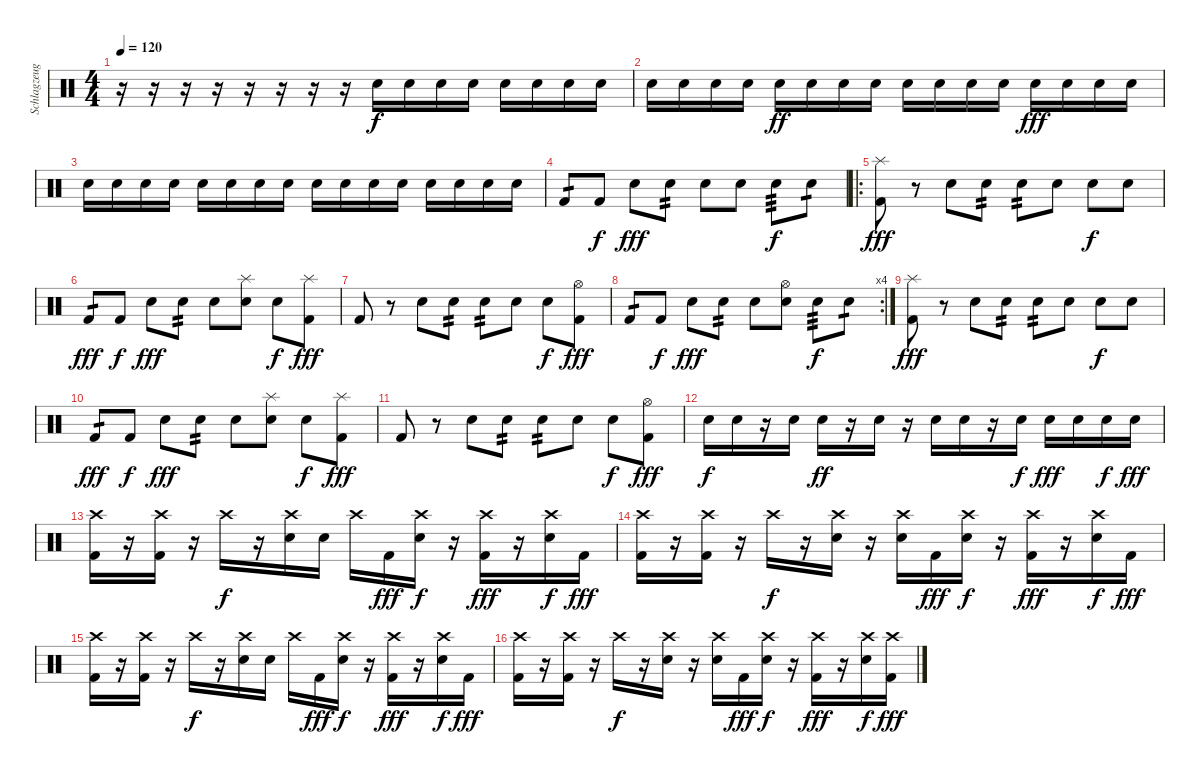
\track ("Schlagzeug" "Schlagzeug") {instrument percussion}
\staff {score}
\articulation defaults
\ts (4 4)
\tempo 120
\clef neutral
\ks c
r.16{dy f} r.16 r.16 r.16 r.16 r.16 r.16 r.16 "Snare (hit) 2".16 "Snare (hit) 2".16 "Snare (hit) 2".16 "Snare (hit) 2".16 "Snare (hit) 2".16 "Snare (hit) 2".16 "Snare (hit) 2".16 "Snare (hit) 2".16 |
"Snare (hit) 2".16 "Snare (hit) 2".16 "Snare (hit) 2".16 "Snare (hit) 2".16 "Snare (hit) 2".16{dy ff} "Snare (hit) 2".16 "Snare (hit) 2".16 "Snare (hit) 2".16 "Snare (hit) 2".16 "Snare (hit) 2".16 "Snare (hit) 2".16 "Snare (hit) 2".16 "Snare (hit) 2".16{dy fff} "Snare (hit) 2".16 "Snare (hit) 2".16 "Snare (hit) 2".16 |
"Snare (hit) 2".16 "Snare (hit) 2".16 "Snare (hit) 2".16 "Snare (hit) 2".16 "Snare (hit) 2".16 "Snare (hit) 2".16 "Snare (hit) 2".16 "Snare (hit) 2".16 "Snare (hit) 2".16 "Snare (hit) 2".16 "Snare (hit) 2".16 "Snare (hit) 2".16 "Snare (hit) 2".16 "Snare (hit) 2".16 "Snare (hit) 2".16 "Snare (hit) 2".16 |
"Kick (hit) 2".8{tp 1} "Kick (hit) 2".8{dy f} "Snare (hit) 2".8{dy fff} "Snare (hit) 2".8{tp 2} "Snare (hit) 2".8 "Snare (hit) 2".8 "Snare (hit) 2".8{tp 3 dy f} "Snare (hit) 2".8{tp 1} |
\ro
("Kick (hit) 2" "Splash (hit)").8{dy fff} r.8 "Snare (hit) 2".8 "Snare (hit) 2".8{tp 2} "Snare (hit) 2".8{tp 2} "Snare (hit) 2".8 "Snare (hit) 2".8{dy f} "Snare (hit) 2".8 |
"Kick (hit) 2".8{tp 1 dy fff} "Kick (hit) 2".8{dy f} "Snare (hit) 2".8{dy fff} "Snare (hit) 2".8{tp 2} "Snare (hit) 2".8 ("Snare (hit) 2" "Splash (hit)").8 "Snare (hit) 2".8{dy f} ("Kick (hit) 2" "Splash (hit)").8{dy fff} |
"Kick (hit) 2".8 r.8 "Snare (hit) 2".8 "Snare (hit) 2".8{tp 2} "Snare (hit) 2".8{tp 2} "Snare (hit) 2".8 "Snare (hit) 2".8{dy f} ("Kick (hit) 2" "Hi-Hat (open)").8{dy fff} |
\rc 4 "Kick (hit) 2".8{tp 1} "Kick (hit) 2".8{dy f} "Snare (hit) 2".8{dy fff} "Snare (hit) 2".8{tp 2} "Snare (hit) 2".8
("Snare (hit) 2" "Hi-Hat (open)").8 "Snare (hit) 2".8{tp 3 dy f} "Snare (hit) 2".8{tp 1} |
("Kick (hit) 2" "Splash (hit)").8{dy fff} r.8 "Snare (hit) 2".8 "Snare (hit) 2".8{tp 2} "Snare (hit) 2".8{tp 2} "Snare (hit) 2".8 "Snare (hit) 2".8{dy f} "Snare (hit) 2".8 |
"Kick (hit) 2".8{tp 1 dy fff} "Kick (hit) 2".8{dy f} "Snare (hit) 2".8{dy fff} "Snare (hit) 2".8{tp 2} "Snare (hit) 2".8 ("Snare (hit) 2" "Splash (hit)").8 "Snare (hit) 2".8{dy f} ("Kick (hit) 2" "Splash (hit)").8{dy fff} |
"Kick (hit) 2".8 r.8 "Snare (hit) 2".8 "Snare (hit) 2".8{tp 2} "Snare (hit) 2".8{tp 2} "Snare (hit) 2".8 "Snare (hit) 2".8{dy f} ("Kick (hit) 2" "Hi-Hat (open)").8{dy fff} |
"Snare (hit) 2".16{dy f} "Snare (hit) 2".16 r.16 "Snare (hit) 2".16 "Snare (hit) 2".16{dy ff} r.16 "Snare (hit) 2".16 r.16 "Snare (hit) 2".16 "Snare (hit) 2".16 r.16 "Snare (hit) 2".16{dy f} "Snare (hit) 2".16{dy fff} "Snare (hit) 2".16 "Snare (hit) 2".16{dy f} "Snare (hit) 2".16{dy fff} |
("Crash high (hit)" "Kick (hit) 2").16 r.16 ("Crash high (hit)" "Kick (hit) 2").16 r.16 "Crash high (hit)".16{dy f} r.16 ("Crash high (hit)" "Snare (hit) 2").16 "Snare (hit) 2".16 "Crash high (hit)".16 "Kick (hit) 2".16{dy fff} ("Crash high (hit)" "Snare (hit) 2").16{dy f} r.16 ("Crash high (hit)" "Kick (hit) 2").16{dy fff} r.16 ("Crash high (hit)" "Snare (hit) 2").16{dy f} "Kick (hit) 2".16{dy fff} |
("Crash high (hit)" "Kick (hit) 2").16 r.16 ("Crash high (hit)" "Kick (hit) 2").16 r.16 "Crash high (hit)".16{dy f} r.16 ("Crash high (hit)" "Snare (hit) 2").16 r.16 ("Crash high (hit)" "Snare (hit) 2").16 "Kick (hit) 2".16{dy fff} ("Crash high (hit)" "Snare (hit) 2").16{dy f} r.16 ("Crash high (hit)" "Kick (hit) 2").16{dy fff} r.16 ("Crash high (hit)" "Snare (hit) 2").16{dy f} "Kick (hit) 2".16{dy fff} |
("Crash high (hit)" "Kick (hit) 2").16 r.16 ("Crash high (hit)" "Kick (hit) 2").16 r.16 "Crash high (hit)".16{dy f} r.16 ("Crash high (hit)" "Snare (hit) 2").16 "Snare (hit) 2".16 "Crash high (hit)".16 "Kick (hit) 2".16{dy fff} ("Crash high (hit)" "Snare (hit) 2").16{dy f} r.16 ("Crash high (hit)" "Kick (hit) 2").16{dy fff} r.16 ("Crash high (hit)" "Snare (hit) 2").16{dy f} "Kick (hit) 2".16{dy fff} |
("Crash high (hit)" "Kick (hit) 2").16 r.16 ("Crash high (hit)" "Kick (hit) 2").16 r.16 "Crash high (hit)".16{dy f} r.16 ("Crash high (hit)" "Snare (hit) 2").16 r.16 ("Crash high (hit)" "Snare (hit) 2").16 "Kick (hit) 2".16{dy fff} ("Crash high (hit)" "Snare (hit) 2").16{dy f} r.16 ("Crash high (hit)" "Kick (hit) 2").16{dy fff} r.16 ("Crash high (hit)" "Snare (hit) 2").16{dy f} ("Crash high (hit)" "Kick (hit) 2").16{dy fff}
